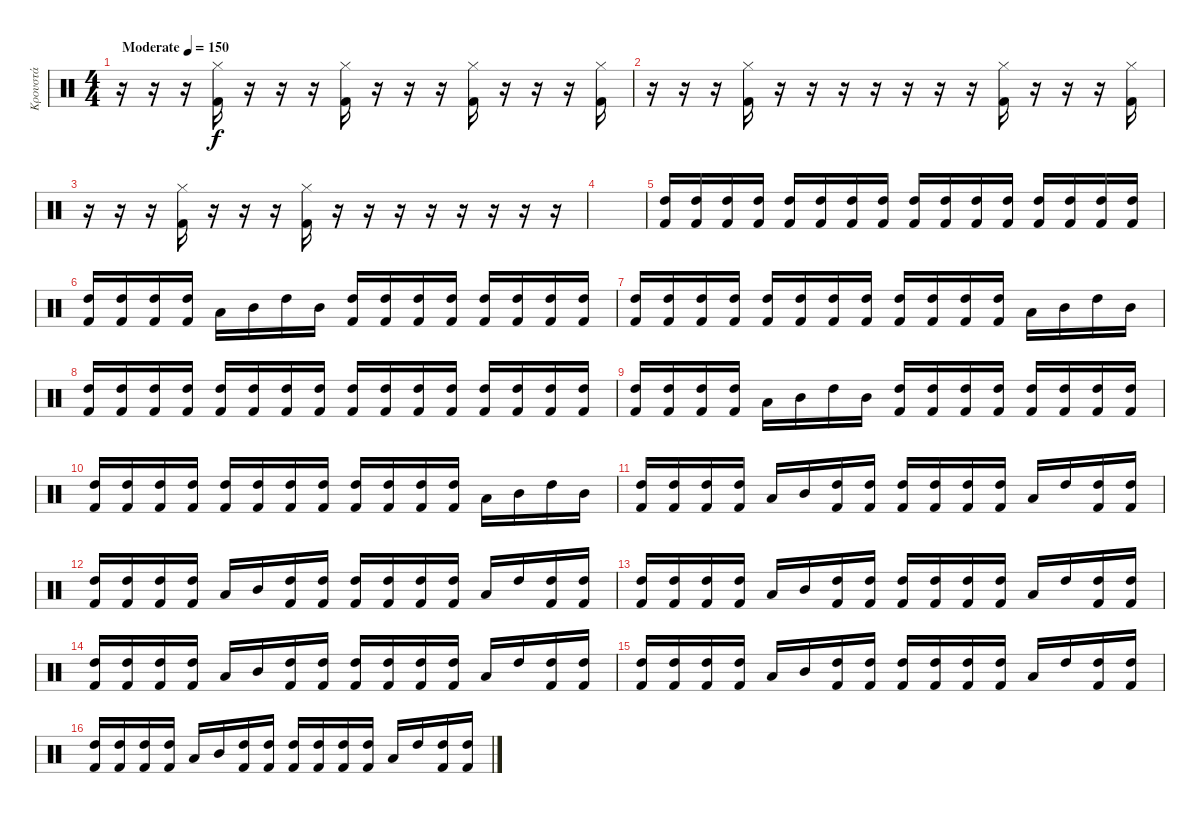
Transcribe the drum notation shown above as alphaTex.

\track ("Κρουστά" "Κρουστά") {instrument percussion}
\staff {score}
\articulation defaults
\ts (4 4)
\tempo (150 "Moderate")
\clef neutral
\ks c
r.16{dy f} r.16 r.16 ("Hi-Hat (closed)" "Kick (hit) 2").16 r.16 r.16 r.16 ("Hi-Hat (closed)" "Kick (hit) 2").16 r.16 r.16 r.16 ("Hi-Hat (closed)" "Kick (hit) 2").16 r.16 r.16 r.16 ("Hi-Hat (closed)" "Kick (hit) 2").16 |
r.16 r.16 r.16 ("Hi-Hat (closed)" "Kick (hit) 2").16 r.16 r.16 r.16 r.16 r.16 r.16 r.16 ("Hi-Hat (closed)" "Kick (hit) 2").16 r.16 r.16 r.16 ("Hi-Hat (closed)" "Kick (hit) 2").16 |
r.16 r.16 r.16 ("Hi-Hat (closed)" "Kick (hit) 2").16 r.16 r.16 r.16 ("Hi-Hat (closed)" "Kick (hit) 2").16 r.16 r.16 r.16 r.16 r.16 r.16 r.16 r.16 |
|
("High Tom (hit)" "Kick (hit) 2").16 ("High Tom (hit)" "Kick (hit) 2").16 ("High Tom (hit)" "Kick (hit) 2").16 ("High Tom (hit)" "Kick (hit) 2").16 ("High Tom (hit)" "Kick (hit) 2").16 ("High Tom (hit)" "Kick (hit) 2").16 ("High Tom (hit)" "Kick (hit) 2").16 ("High Tom (hit)" "Kick (hit) 2").16 ("High Tom (hit)" "Kick (hit) 2").16 ("High Tom (hit)" "Kick (hit) 2").16 ("High Tom (hit)" "Kick (hit) 2").16 ("High Tom (hit)" "Kick (hit) 2").16 ("High Tom (hit)" "Kick (hit) 2").16 ("High Tom (hit)" "Kick (hit) 2").16 ("High Tom (hit)" "Kick (hit) 2").16 ("High Tom (hit)" "Kick (hit) 2").16 |
("High Tom (hit)" "Kick (hit) 2").16 ("High Tom (hit)" "Kick (hit) 2").16 ("High Tom (hit)" "Kick (hit) 2").16 ("High Tom (hit)" "Kick (hit) 2").16 "Low Tom (hit)".16 "Mid Tom (hit)".16 "High Tom (hit)".16 "Mid Tom (hit)".16 ("High Tom (hit)" "Kick (hit) 2").16 ("High Tom (hit)" "Kick (hit) 2").16 ("High Tom (hit)" "Kick (hit) 2").16 ("High Tom (hit)" "Kick (hit) 2").16 ("High Tom (hit)" "Kick (hit) 2").16 ("High Tom (hit)" "Kick (hit) 2").16 ("High Tom (hit)" "Kick (hit) 2").16 ("High Tom (hit)" "Kick (hit) 2").16 |
("High Tom (hit)" "Kick (hit) 2").16 ("High Tom (hit)" "Kick (hit) 2").16 ("High Tom (hit)" "Kick (hit) 2").16 ("High Tom (hit)" "Kick (hit) 2").16 ("High Tom (hit)" "Kick (hit) 2").16 ("High Tom (hit)" "Kick (hit) 2").16 ("High Tom (hit)" "Kick (hit) 2").16 ("High Tom (hit)" "Kick (hit) 2").16 ("High Tom (hit)" "Kick (hit) 2").16 ("High Tom (hit)" "Kick (hit) 2").16 ("High Tom (hit)" "Kick (hit) 2").16 ("High Tom (hit)" "Kick (hit) 2").16 "Low Tom (hit)".16 "Mid Tom (hit)".16 "High Tom (hit)".16 "Mid Tom (hit)".16 |
("High Tom (hit)" "Kick (hit) 2").16 ("High Tom (hit)" "Kick (hit) 2").16 ("High Tom (hit)" "Kick (hit) 2").16 ("High Tom (hit)" "Kick (hit) 2").16 ("High Tom (hit)" "Kick (hit) 2").16 ("High Tom (hit)" "Kick (hit) 2").16 ("High Tom (hit)" "Kick (hit) 2").16 ("High Tom (hit)" "Kick (hit) 2").16 ("High Tom (hit)" "Kick (hit) 2").16 ("High Tom (hit)" "Kick (hit) 2").16 ("High Tom (hit)" "Kick (hit) 2").16 ("High Tom (hit)" "Kick (hit) 2").16 ("High Tom (hit)" "Kick (hit) 2").16 ("High Tom (hit)" "Kick (hit) 2").16 ("High Tom (hit)" "Kick (hit) 2").16 ("High Tom (hit)" "Kick (hit) 2").16 |
("High Tom (hit)" "Kick (hit) 2").16 ("High Tom (hit)" "Kick (hit) 2").16 ("High Tom (hit)" "Kick (hit) 2").16 ("High Tom (hit)" "Kick (hit) 2").16 "Low Tom (hit)".16 "Mid Tom (hit)".16 "High Tom (hit)".16 "Mid Tom (hit)".16 ("High Tom (hit)" "Kick (hit) 2").16 ("High Tom (hit)" "Kick (hit) 2").16 ("High Tom (hit)" "Kick (hit) 2").16 ("High Tom (hit)" "Kick (hit) 2").16 ("High Tom (hit)" "Kick (hit) 2").16 ("High Tom (hit)" "Kick (hit) 2").16 ("High Tom (hit)" "Kick (hit) 2").16 ("High Tom (hit)" "Kick (hit) 2").16 |
("High Tom (hit)" "Kick (hit) 2").16 ("High Tom (hit)" "Kick (hit) 2").16 ("High Tom (hit)" "Kick (hit) 2").16 ("High Tom (hit)" "Kick (hit) 2").16 ("High Tom (hit)" "Kick (hit) 2").16 ("High Tom (hit)" "Kick (hit) 2").16 ("High Tom (hit)" "Kick (hit) 2").16 ("High Tom (hit)" "Kick (hit) 2").16 ("High Tom (hit)" "Kick (hit) 2").16 ("High Tom (hit)" "Kick (hit) 2").16 ("High Tom (hit)" "Kick (hit) 2").16 ("High Tom (hit)" "Kick (hit) 2").16 "Low Tom (hit)".16 "Mid Tom (hit)".16 "High Tom (hit)".16 "Mid Tom (hit)".16 |
("High Tom (hit)" "Kick (hit) 2").16 ("High Tom (hit)" "Kick (hit) 2").16 ("High Tom (hit)" "Kick (hit) 2").16 ("High Tom (hit)" "Kick (hit) 2").16 "Low Tom (hit)".16 "Mid Tom (hit)".16 ("High Tom (hit)" "Kick (hit) 2").16 ("High Tom (hit)" "Kick (hit) 2").16 ("High Tom (hit)" "Kick (hit) 2").16 ("High Tom (hit)" "Kick (hit) 2").16 ("High Tom (hit)" "Kick (hit) 2").16 ("High Tom (hit)" "Kick (hit) 2").16 "Low Floor Tom (hit)".16 "High Tom (hit)".16 ("High Tom (hit)" "Kick (hit) 2").16 ("High Tom (hit)" "Kick (hit) 2").16 |
("High Tom (hit)" "Kick (hit) 2").16 ("High Tom (hit)" "Kick (hit) 2").16 ("High Tom (hit)" "Kick (hit) 2").16 ("High Tom (hit)" "Kick (hit) 2").16 "Low Tom (hit)".16 "Mid Tom (hit)".16 ("High Tom (hit)" "Kick (hit) 2").16 ("High Tom (hit)" "Kick (hit) 2").16 ("High Tom (hit)" "Kick (hit) 2").16 ("High Tom (hit)" "Kick (hit) 2").16 ("High Tom (hit)" "Kick (hit) 2").16 ("High Tom (hit)" "Kick (hit) 2").16 "Low Floor Tom (hit)".16 "High Tom (hit)".16 ("High Tom (hit)" "Kick (hit) 2").16 ("High Tom (hit)" "Kick (hit) 2").16 |
("High Tom (hit)" "Kick (hit) 2").16 ("High Tom (hit)" "Kick (hit) 2").16 ("High Tom (hit)" "Kick (hit) 2").16 ("High Tom (hit)" "Kick (hit) 2").16 "Low Tom (hit)".16 "Mid Tom (hit)".16 ("High Tom (hit)" "Kick (hit) 2").16 ("High Tom (hit)" "Kick (hit) 2").16 ("High Tom (hit)" "Kick (hit) 2").16 ("High Tom (hit)" "Kick (hit) 2").16 ("High Tom (hit)" "Kick (hit) 2").16 ("High Tom (hit)" "Kick (hit) 2").16 "Low Floor Tom (hit)".16 "High Tom (hit)".16 ("High Tom (hit)" "Kick (hit) 2").16 ("High Tom (hit)" "Kick (hit) 2").16 |
("High Tom (hit)" "Kick (hit) 2").16 ("High Tom (hit)" "Kick (hit) 2").16 ("High Tom (hit)" "Kick (hit) 2").16 ("High Tom (hit)" "Kick (hit) 2").16 "Low Tom (hit)".16 "Mid Tom (hit)".16 ("High Tom (hit)" "Kick (hit) 2").16 ("High Tom (hit)" "Kick (hit) 2").16 ("High Tom (hit)" "Kick (hit) 2").16 ("High Tom (hit)" "Kick (hit) 2").16 ("High Tom (hit)" "Kick (hit) 2").16 ("High Tom (hit)" "Kick (hit) 2").16 "Low Floor Tom (hit)".16 "High Tom (hit)".16 ("High Tom (hit)" "Kick (hit) 2").16 ("High Tom (hit)" "Kick (hit) 2").16 |
("High Tom (hit)" "Kick (hit) 2").16 ("High Tom (hit)" "Kick (hit) 2").16 ("High Tom (hit)" "Kick (hit) 2").16 ("High Tom (hit)" "Kick (hit) 2").16 "Low Tom (hit)".16 "Mid Tom (hit)".16 ("High Tom (hit)" "Kick (hit) 2").16 ("High Tom (hit)" "Kick (hit) 2").16 ("High Tom (hit)" "Kick (hit) 2").16 ("High Tom (hit)" "Kick (hit) 2").16 ("High Tom (hit)" "Kick (hit) 2").16 ("High Tom (hit)" "Kick (hit) 2").16 "Low Floor Tom (hit)".16 "High Tom (hit)".16 ("High Tom (hit)" "Kick (hit) 2").16 ("High Tom (hit)" "Kick (hit) 2").16 |
("High Tom (hit)" "Kick (hit) 2").16 ("High Tom (hit)" "Kick (hit) 2").16 ("High Tom (hit)" "Kick (hit) 2").16 ("High Tom (hit)" "Kick (hit) 2").16 "Low Tom (hit)".16 "Mid Tom (hit)".16 ("High Tom (hit)" "Kick (hit) 2").16 ("High Tom (hit)" "Kick (hit) 2").16 ("High Tom (hit)" "Kick (hit) 2").16 ("High Tom (hit)" "Kick (hit) 2").16 ("High Tom (hit)" "Kick (hit) 2").16 ("High Tom (hit)" "Kick (hit) 2").16 "Low Floor Tom (hit)".16 "High Tom (hit)".16 ("High Tom (hit)" "Kick (hit) 2").16 ("High Tom (hit)" "Kick (hit) 2").16
